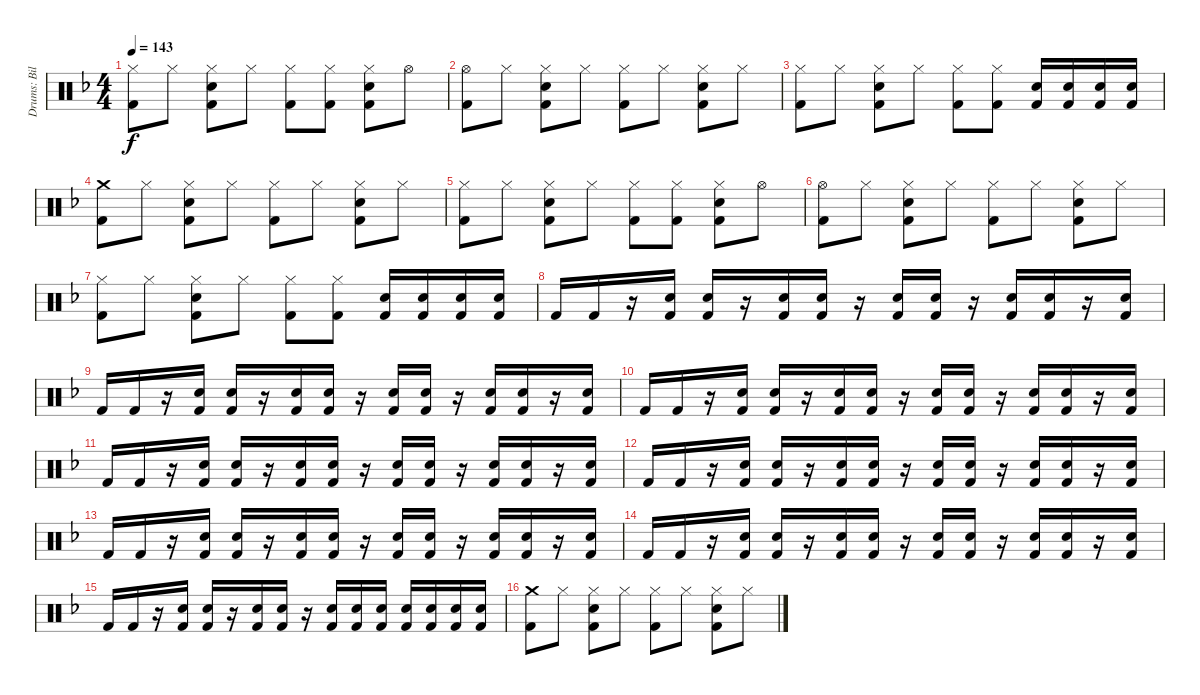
\track ("Drums: Bill" "Drums: Bil") {instrument percussion}
\staff {score}
\articulation defaults
\ts (4 4)
\tempo 143
\clef neutral
\ks f
("Hi-Hat (closed)" "Kick (hit) 2").8{dy f} "Hi-Hat (closed)".8 ("Hi-Hat (closed)" "Snare (hit) 2" "Kick (hit) 2").8 "Hi-Hat (closed)".8 ("Hi-Hat (closed)" "Kick (hit) 2").8 ("Hi-Hat (closed)" "Kick (hit) 2").8 ("Hi-Hat (closed)" "Snare (hit) 2" "Kick (hit) 2").8 "Hi-Hat (open)".8 |
("Hi-Hat (open)" "Kick (hit) 2").8 "Hi-Hat (closed)".8 ("Hi-Hat (closed)" "Snare (hit) 2" "Kick (hit) 2").8 "Hi-Hat (closed)".8 ("Hi-Hat (closed)" "Kick (hit) 2").8 "Hi-Hat (closed)".8 ("Hi-Hat (closed)" "Snare (hit) 2" "Kick (hit) 2").8 "Hi-Hat (closed)".8 |
("Hi-Hat (closed)" "Kick (hit) 2").8 "Hi-Hat (closed)".8 ("Hi-Hat (closed)" "Snare (hit) 2" "Kick (hit) 2").8 "Hi-Hat (closed)".8 ("Hi-Hat (closed)" "Kick (hit) 2").8 ("Hi-Hat (closed)" "Kick (hit) 2").8 ("Snare (hit) 2" "Kick (hit) 2").16 ("Snare (hit) 2" "Kick (hit) 2").16 ("Snare (hit) 2" "Kick (hit) 2").16 ("Snare (hit) 2" "Kick (hit) 2").16 |
("Crash medium (hit)" "Kick (hit) 2").8 "Hi-Hat (closed)".8 ("Hi-Hat (closed)" "Snare (hit) 2" "Kick (hit) 2").8 "Hi-Hat (closed)".8 ("Hi-Hat (closed)" "Kick (hit) 2").8 "Hi-Hat (closed)".8 ("Hi-Hat (closed)" "Snare (hit) 2" "Kick (hit) 2").8 "Hi-Hat (closed)".8 |
("Hi-Hat (closed)" "Kick (hit) 2").8 "Hi-Hat (closed)".8 ("Hi-Hat (closed)" "Snare (hit) 2" "Kick (hit) 2").8 "Hi-Hat (closed)".8 ("Hi-Hat (closed)" "Kick (hit) 2").8 ("Hi-Hat (closed)" "Kick (hit) 2").8 ("Hi-Hat (closed)" "Snare (hit) 2" "Kick (hit) 2").8 "Hi-Hat (open)".8 |
("Hi-Hat (open)" "Kick (hit) 2").8 "Hi-Hat (closed)".8 ("Hi-Hat (closed)" "Snare (hit) 2" "Kick (hit) 2").8 "Hi-Hat (closed)".8 ("Hi-Hat (closed)" "Kick (hit) 2").8 "Hi-Hat (closed)".8 ("Hi-Hat (closed)" "Snare (hit) 2" "Kick (hit) 2").8 "Hi-Hat (closed)".8 |
("Hi-Hat (closed)" "Kick (hit) 2").8 "Hi-Hat (closed)".8 ("Hi-Hat (closed)" "Snare (hit) 2" "Kick (hit) 2").8 "Hi-Hat (closed)".8 ("Hi-Hat (closed)" "Kick (hit) 2").8 ("Hi-Hat (closed)" "Kick (hit) 2").8 ("Snare (hit) 2" "Kick (hit) 2").16 ("Snare (hit) 2" "Kick (hit) 2").16 ("Snare (hit) 2" "Kick (hit) 2").16 ("Snare (hit) 2" "Kick (hit) 2").16 |
"Kick (hit) 2".16 "Kick (hit) 2".16 r.16 ("Electric Snare (hit)" "Kick (hit) 2").16 ("Electric Snare (hit)" "Kick (hit) 2").16 r.16 ("Snare (hit) 2" "Kick (hit) 2").16 ("Snare (hit) 2" "Kick (hit) 2").16 r.16 ("Electric Snare (hit)" "Kick (hit) 2").16 ("Electric Snare (hit)" "Kick (hit) 2").16 r.16 ("Snare (hit) 2" "Kick (hit) 2").16 ("Snare (hit) 2" "Kick (hit) 2").16 r.16 ("Electric Snare (hit)" "Kick (hit) 2").16 |
"Kick (hit) 2".16 "Kick (hit) 2".16 r.16 ("Electric Snare (hit)" "Kick (hit) 2").16 ("Electric Snare (hit)" "Kick (hit) 2").16 r.16 ("Snare (hit) 2" "Kick (hit) 2").16 ("Snare (hit) 2" "Kick (hit) 2").16 r.16 ("Electric Snare (hit)" "Kick (hit) 2").16 ("Electric Snare (hit)" "Kick (hit) 2").16 r.16 ("Snare (hit) 2" "Kick (hit) 2").16 ("Snare (hit) 2" "Kick (hit) 2").16 r.16 ("Electric Snare (hit)" "Kick (hit) 2").16 |
"Kick (hit) 2".16 "Kick (hit) 2".16 r.16 ("Electric Snare (hit)" "Kick (hit) 2").16 ("Electric Snare (hit)" "Kick (hit) 2").16 r.16 ("Snare (hit) 2" "Kick (hit) 2").16 ("Snare (hit) 2" "Kick (hit) 2").16 r.16 ("Electric Snare (hit)" "Kick (hit) 2").16 ("Electric Snare (hit)" "Kick (hit) 2").16 r.16 ("Snare (hit) 2" "Kick (hit) 2").16 ("Snare (hit) 2" "Kick (hit) 2").16 r.16 ("Electric Snare (hit)" "Kick (hit) 2").16 |
"Kick (hit) 2".16 "Kick (hit) 2".16 r.16 ("Electric Snare (hit)" "Kick (hit) 2").16 ("Electric Snare (hit)" "Kick (hit) 2").16 r.16 ("Snare (hit) 2" "Kick (hit) 2").16 ("Snare (hit) 2" "Kick (hit) 2").16 r.16 ("Electric Snare (hit)" "Kick (hit) 2").16 ("Electric Snare (hit)" "Kick (hit) 2").16 r.16 ("Snare (hit) 2" "Kick (hit) 2").16 ("Snare (hit) 2" "Kick (hit) 2").16 r.16 ("Electric Snare (hit)" "Kick (hit) 2").16 |
"Kick (hit) 2".16 "Kick (hit) 2".16 r.16 ("Electric Snare (hit)" "Kick (hit) 2").16 ("Electric Snare (hit)" "Kick (hit) 2").16 r.16 ("Snare (hit) 2" "Kick (hit) 2").16 ("Snare (hit) 2" "Kick (hit) 2").16 r.16 ("Electric Snare (hit)" "Kick (hit) 2").16 ("Electric Snare (hit)" "Kick (hit) 2").16 r.16 ("Snare (hit) 2" "Kick (hit) 2").16 ("Snare (hit) 2" "Kick (hit) 2").16 r.16 ("Electric Snare (hit)" "Kick (hit) 2").16 |
"Kick (hit) 2".16 "Kick (hit) 2".16 r.16 ("Electric Snare (hit)" "Kick (hit) 2").16 ("Electric Snare (hit)" "Kick (hit) 2").16 r.16 ("Snare (hit) 2" "Kick (hit) 2").16 ("Snare (hit) 2" "Kick (hit) 2").16 r.16 ("Electric Snare (hit)" "Kick (hit) 2").16 ("Electric Snare (hit)" "Kick (hit) 2").16 r.16 ("Snare (hit) 2" "Kick (hit) 2").16 ("Snare (hit) 2" "Kick (hit) 2").16 r.16 ("Electric Snare (hit)" "Kick (hit) 2").16 |
"Kick (hit) 2".16 "Kick (hit) 2".16 r.16 ("Electric Snare (hit)" "Kick (hit) 2").16 ("Electric Snare (hit)" "Kick (hit) 2").16 r.16 ("Snare (hit) 2" "Kick (hit) 2").16 ("Snare (hit) 2" "Kick (hit) 2").16 r.16 ("Electric Snare (hit)" "Kick (hit) 2").16 ("Electric Snare (hit)" "Kick (hit) 2").16 r.16 ("Snare (hit) 2" "Kick (hit) 2").16 ("Snare (hit) 2" "Kick (hit) 2").16 r.16 ("Electric Snare (hit)" "Kick (hit) 2").16 |
"Kick (hit) 2".16 "Kick (hit) 2".16 r.16 ("Electric Snare (hit)" "Kick (hit) 2").16 ("Electric Snare (hit)" "Kick (hit) 2").16 r.16 ("Snare (hit) 2" "Kick (hit) 2").16 ("Snare (hit) 2" "Kick (hit) 2").16 r.16 ("Electric Snare (hit)" "Kick (hit) 2").16 ("Snare (hit) 2" "Kick (hit) 2").16 ("Snare (hit) 2" "Kick (hit) 2").16 ("Snare (hit) 2" "Kick (hit) 2").16 ("Snare (hit) 2" "Kick (hit) 2").16 ("Snare (hit) 2" "Kick (hit) 2").16 ("Snare (hit) 2" "Kick (hit) 2").16 |
("Crash medium (hit)" "Kick (hit) 2").8 "Hi-Hat (closed)".8 ("Hi-Hat (closed)" "Snare (hit) 2" "Kick (hit) 2").8 "Hi-Hat (closed)".8 ("Hi-Hat (closed)" "Kick (hit) 2").8 "Hi-Hat (closed)".8 ("Hi-Hat (closed)" "Snare (hit) 2" "Kick (hit) 2").8 "Hi-Hat (closed)".8
